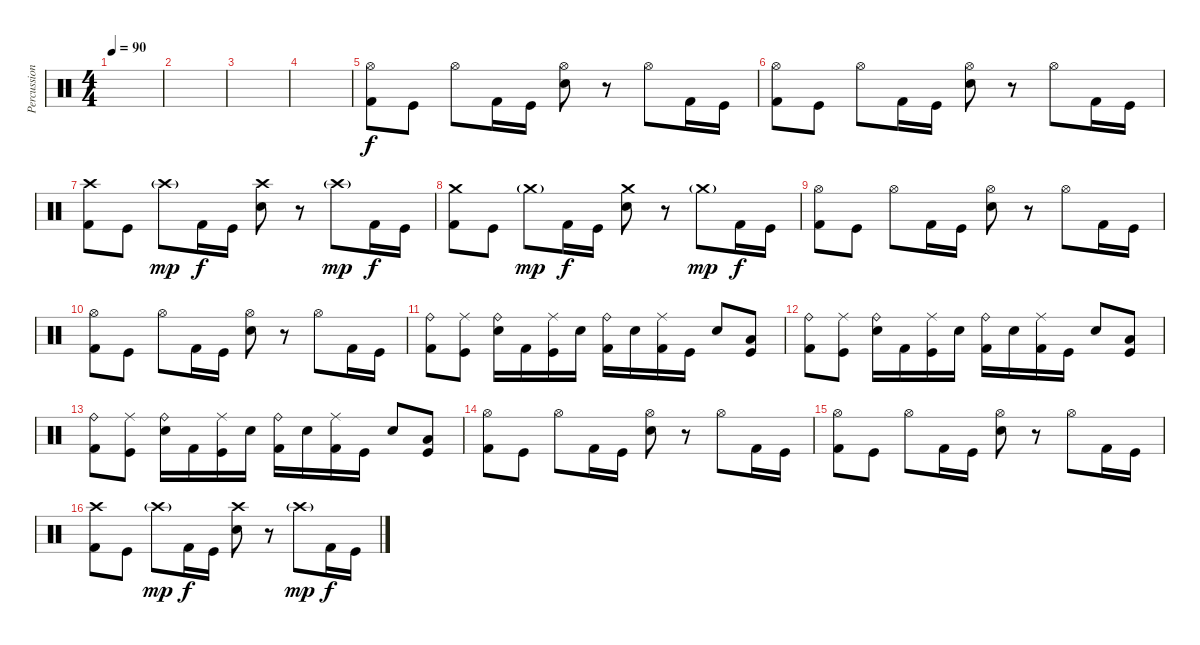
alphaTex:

\track ("Percussion" "Percussion") {instrument percussion}
\staff {score}
\articulation defaults
\ts (4 4)
\tempo 90
\clef neutral
\ks c
|
|
|
|
("Hi-Hat (open)" "Kick (hit) 2").8 "Kick (hit)".8 "Hi-Hat (open)".8 "Kick (hit) 2".16 "Kick (hit)".16 ("Hi-Hat (open)" "Electric Snare (hit)").8 r.8 "Hi-Hat (open)".8 "Kick (hit) 2".16 "Kick (hit)".16 |
("Hi-Hat (open)" "Kick (hit) 2").8 "Kick (hit)".8 "Hi-Hat (open)".8 "Kick (hit) 2".16 "Kick (hit)".16 ("Hi-Hat (open)" "Electric Snare (hit)").8 r.8 "Hi-Hat (open)".8 "Kick (hit) 2".16 "Kick (hit)".16 |
("Crash high (hit)" "Kick (hit) 2").8 "Kick (hit)".8 "Crash high (hit)"{g}.8{dy mp} "Kick (hit) 2".16{dy f} "Kick (hit)".16 ("Crash high (hit)" "Electric Snare (hit)").8 r.8 "Crash high (hit)"{g}.8{dy mp} "Kick (hit) 2".16{dy f} "Kick (hit)".16 |
("Crash medium (hit)" "Kick (hit) 2").8 "Kick (hit)".8 "Crash medium (hit)"{g}.8{dy mp} "Kick (hit) 2".16{dy f} "Kick (hit)".16 ("Crash medium (hit)" "Electric Snare (hit)").8 r.8 "Crash medium (hit)"{g}.8{dy mp} "Kick (hit) 2".16{dy f} "Kick (hit)".16 |
("Hi-Hat (open)" "Kick (hit) 2").8 "Kick (hit)".8 "Hi-Hat (open)".8 "Kick (hit) 2".16 "Kick (hit)".16 ("Hi-Hat (open)" "Electric Snare (hit)").8 r.8 "Hi-Hat (open)".8 "Kick (hit) 2".16 "Kick (hit)".16 |
("Hi-Hat (open)" "Kick (hit) 2").8 "Kick (hit)".8 "Hi-Hat (open)".8 "Kick (hit) 2".16 "Kick (hit)".16 ("Hi-Hat (open)" "Electric Snare (hit)").8 r.8 "Hi-Hat (open)".8 "Kick (hit) 2".16 "Kick (hit)".16 |
("Ride (bell)" "Kick (hit) 2").8 ("Ride (middle)" "Kick (hit)").8 ("Ride (bell)" "Electric Snare (hit)").16 "Kick (hit) 2".16 ("Ride (middle)" "Kick (hit)").16 "Electric Snare (hit)".16 ("Ride (bell)" "Kick (hit) 2").16 "Electric Snare (hit)".16 ("Ride (middle)" "Kick (hit) 2").16 "Kick (hit)".16 "Electric Snare (hit)".8 ("Low Tom (hit)" "Kick (hit)").8 |
("Ride (bell)" "Kick (hit) 2").8 ("Ride (middle)" "Kick (hit)").8 ("Ride (bell)" "Electric Snare (hit)").16 "Kick (hit) 2".16 ("Ride (middle)" "Kick (hit)").16 "Electric Snare (hit)".16 ("Ride (bell)" "Kick (hit) 2").16 "Electric Snare (hit)".16 ("Ride (middle)" "Kick (hit) 2").16 "Kick (hit)".16 "Electric Snare (hit)".8 ("Low Tom (hit)" "Kick (hit)").8 |
("Ride (bell)" "Kick (hit) 2").8 ("Ride (middle)" "Kick (hit)").8 ("Ride (bell)" "Electric Snare (hit)").16 "Kick (hit) 2".16 ("Ride (middle)" "Kick (hit)").16 "Electric Snare (hit)".16 ("Ride (bell)" "Kick (hit) 2").16 "Electric Snare (hit)".16 ("Ride (middle)" "Kick (hit) 2").16 "Kick (hit)".16 "Electric Snare (hit)".8 ("Low Tom (hit)" "Kick (hit)").8 |
("Hi-Hat (open)" "Kick (hit) 2").8 "Kick (hit)".8 "Hi-Hat (open)".8 "Kick (hit) 2".16 "Kick (hit)".16 ("Hi-Hat (open)" "Electric Snare (hit)").8 r.8 "Hi-Hat (open)".8 "Kick (hit) 2".16 "Kick (hit)".16 |
("Hi-Hat (open)" "Kick (hit) 2").8 "Kick (hit)".8 "Hi-Hat (open)".8 "Kick (hit) 2".16 "Kick (hit)".16 ("Hi-Hat (open)" "Electric Snare (hit)").8 r.8 "Hi-Hat (open)".8 "Kick (hit) 2".16 "Kick (hit)".16 |
("Crash high (hit)" "Kick (hit) 2").8 "Kick (hit)".8 "Crash high (hit)"{g}.8{dy mp} "Kick (hit) 2".16{dy f} "Kick (hit)".16 ("Crash high (hit)" "Electric Snare (hit)").8 r.8 "Crash high (hit)"{g}.8{dy mp} "Kick (hit) 2".16{dy f} "Kick (hit)".16
